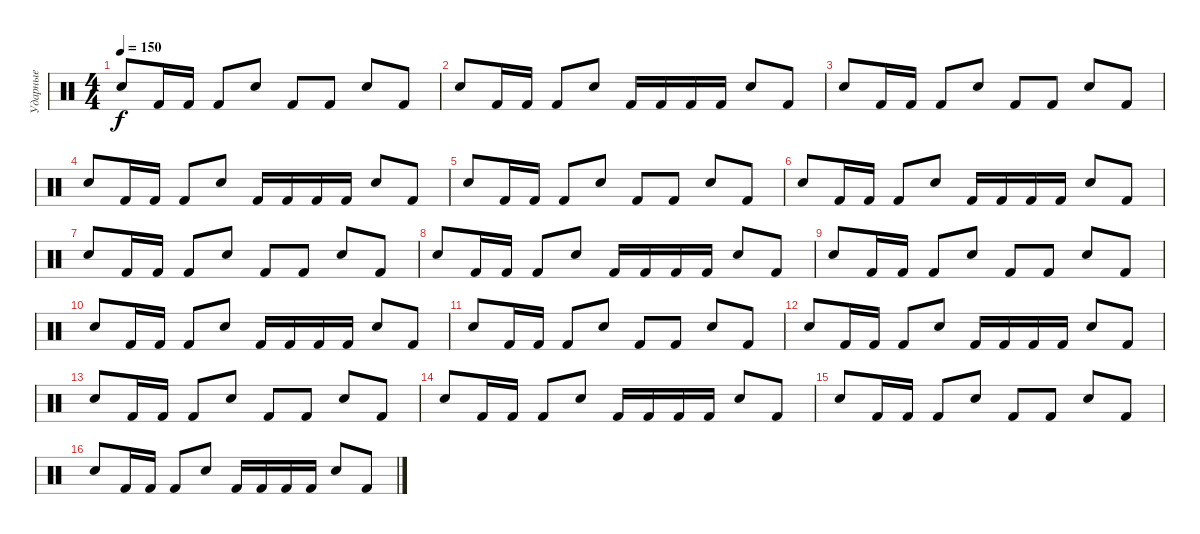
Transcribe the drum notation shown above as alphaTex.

\track ("Ударные" "Ударные") {instrument percussion}
\staff {score}
\articulation defaults
\ts (4 4)
\tempo 150
\clef neutral
\ks c "Snare (hit) 2".8{dy f} "Kick (hit) 2".16 "Kick (hit) 2".16 "Kick (hit) 2".8 "Hand Clap (hit)".8 "Kick (hit) 2".8 "Kick (hit) 2".8 "Hand Clap (hit)".8 "Kick (hit) 2".8
|
"Snare (hit) 2".8 "Kick (hit) 2".16 "Kick (hit) 2".16 "Kick (hit) 2".8 "Hand Clap (hit)".8 "Kick (hit) 2".16 "Kick (hit) 2".16 "Kick (hit) 2".16 "Kick (hit) 2".16 "Hand Clap (hit)".8 "Kick (hit) 2".8 |
"Snare (hit) 2".8 "Kick (hit) 2".16 "Kick (hit) 2".16 "Kick (hit) 2".8 "Hand Clap (hit)".8 "Kick (hit) 2".8 "Kick (hit) 2".8 "Hand Clap (hit)".8 "Kick (hit) 2".8 |
"Snare (hit) 2".8 "Kick (hit) 2".16 "Kick (hit) 2".16 "Kick (hit) 2".8 "Hand Clap (hit)".8 "Kick (hit) 2".16 "Kick (hit) 2".16 "Kick (hit) 2".16 "Kick (hit) 2".16 "Hand Clap (hit)".8 "Kick (hit) 2".8 |
"Snare (hit) 2".8 "Kick (hit) 2".16 "Kick (hit) 2".16 "Kick (hit) 2".8 "Hand Clap (hit)".8 "Kick (hit) 2".8 "Kick (hit) 2".8 "Hand Clap (hit)".8 "Kick (hit) 2".8 |
"Snare (hit) 2".8 "Kick (hit) 2".16 "Kick (hit) 2".16 "Kick (hit) 2".8 "Hand Clap (hit)".8 "Kick (hit) 2".16 "Kick (hit) 2".16 "Kick (hit) 2".16 "Kick (hit) 2".16 "Hand Clap (hit)".8 "Kick (hit) 2".8 |
"Snare (hit) 2".8 "Kick (hit) 2".16 "Kick (hit) 2".16 "Kick (hit) 2".8 "Hand Clap (hit)".8 "Kick (hit) 2".8 "Kick (hit) 2".8 "Hand Clap (hit)".8 "Kick (hit) 2".8 |
"Snare (hit) 2".8 "Kick (hit) 2".16 "Kick (hit) 2".16 "Kick (hit) 2".8 "Hand Clap (hit)".8 "Kick (hit) 2".16 "Kick (hit) 2".16 "Kick (hit) 2".16 "Kick (hit) 2".16 "Hand Clap (hit)".8 "Kick (hit) 2".8 |
"Snare (hit) 2".8 "Kick (hit) 2".16 "Kick (hit) 2".16 "Kick (hit) 2".8 "Hand Clap (hit)".8 "Kick (hit) 2".8 "Kick (hit) 2".8 "Hand Clap (hit)".8 "Kick (hit) 2".8 |
"Snare (hit) 2".8 "Kick (hit) 2".16 "Kick (hit) 2".16 "Kick (hit) 2".8 "Hand Clap (hit)".8 "Kick (hit) 2".16 "Kick (hit) 2".16 "Kick (hit) 2".16 "Kick (hit) 2".16 "Hand Clap (hit)".8 "Kick (hit) 2".8 |
"Snare (hit) 2".8 "Kick (hit) 2".16 "Kick (hit) 2".16 "Kick (hit) 2".8 "Hand Clap (hit)".8 "Kick (hit) 2".8 "Kick (hit) 2".8 "Hand Clap (hit)".8 "Kick (hit) 2".8 |
"Snare (hit) 2".8 "Kick (hit) 2".16 "Kick (hit) 2".16 "Kick (hit) 2".8 "Hand Clap (hit)".8 "Kick (hit) 2".16 "Kick (hit) 2".16 "Kick (hit) 2".16 "Kick (hit) 2".16 "Hand Clap (hit)".8 "Kick (hit) 2".8 |
"Snare (hit) 2".8 "Kick (hit) 2".16 "Kick (hit) 2".16 "Kick (hit) 2".8 "Hand Clap (hit)".8 "Kick (hit) 2".8 "Kick (hit) 2".8 "Hand Clap (hit)".8 "Kick (hit) 2".8 |
"Snare (hit) 2".8 "Kick (hit) 2".16 "Kick (hit) 2".16 "Kick (hit) 2".8 "Hand Clap (hit)".8 "Kick (hit) 2".16 "Kick (hit) 2".16 "Kick (hit) 2".16 "Kick (hit) 2".16 "Hand Clap (hit)".8 "Kick (hit) 2".8 |
"Snare (hit) 2".8 "Kick (hit) 2".16 "Kick (hit) 2".16 "Kick (hit) 2".8 "Hand Clap (hit)".8 "Kick (hit) 2".8 "Kick (hit) 2".8 "Hand Clap (hit)".8 "Kick (hit) 2".8 |
"Snare (hit) 2".8 "Kick (hit) 2".16 "Kick (hit) 2".16 "Kick (hit) 2".8 "Hand Clap (hit)".8 "Kick (hit) 2".16 "Kick (hit) 2".16 "Kick (hit) 2".16 "Kick (hit) 2".16 "Hand Clap (hit)".8 "Kick (hit) 2".8
